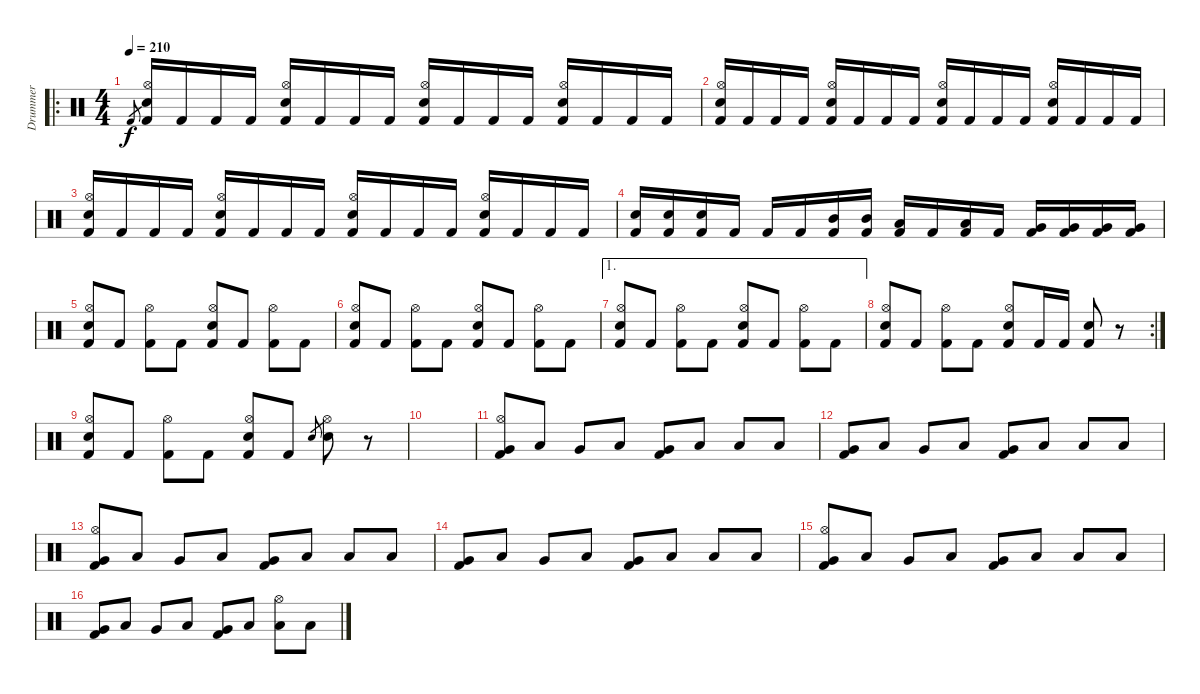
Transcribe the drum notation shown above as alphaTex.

\track ("Drummer" "Drummer") {instrument percussion}
\staff {score}
\articulation defaults
\ro
\ts (4 4)
\tempo 210
\clef neutral
\ks c "Kick (hit) 2".8{gr dy f}
("Hi-Hat (open)" "Electric Snare (hit)" "Kick (hit) 2").16 "Kick (hit) 2".16 "Kick (hit) 2".16 "Kick (hit) 2".16 ("Hi-Hat (open)" "Electric Snare (hit)" "Kick (hit) 2").16 "Kick (hit) 2".16 "Kick (hit) 2".16 "Kick (hit) 2".16 ("Hi-Hat (open)" "Electric Snare (hit)" "Kick (hit) 2").16 "Kick (hit) 2".16 "Kick (hit) 2".16 "Kick (hit) 2".16 ("Hi-Hat (open)" "Electric Snare (hit)" "Kick (hit) 2").16 "Kick (hit) 2".16 "Kick (hit) 2".16 "Kick (hit) 2".16 |
("Hi-Hat (open)" "Electric Snare (hit)" "Kick (hit) 2").16 "Kick (hit) 2".16 "Kick (hit) 2".16 "Kick (hit) 2".16 ("Hi-Hat (open)" "Electric Snare (hit)" "Kick (hit) 2").16 "Kick (hit) 2".16 "Kick (hit) 2".16 "Kick (hit) 2".16 ("Hi-Hat (open)" "Electric Snare (hit)" "Kick (hit) 2").16 "Kick (hit) 2".16 "Kick (hit) 2".16 "Kick (hit) 2".16 ("Hi-Hat (open)" "Electric Snare (hit)" "Kick (hit) 2").16 "Kick (hit) 2".16 "Kick (hit) 2".16 "Kick (hit) 2".16 |
("Hi-Hat (open)" "Electric Snare (hit)" "Kick (hit) 2").16 "Kick (hit) 2".16 "Kick (hit) 2".16 "Kick (hit) 2".16 ("Hi-Hat (open)" "Electric Snare (hit)" "Kick (hit) 2").16 "Kick (hit) 2".16 "Kick (hit) 2".16 "Kick (hit) 2".16 ("Hi-Hat (open)" "Electric Snare (hit)" "Kick (hit) 2").16 "Kick (hit) 2".16 "Kick (hit) 2".16 "Kick (hit) 2".16 ("Hi-Hat (open)" "Electric Snare (hit)" "Kick (hit) 2").16 "Kick (hit) 2".16 "Kick (hit) 2".16 "Kick (hit) 2".16 |
("Electric Snare (hit)" "Kick (hit) 2").16 ("Electric Snare (hit)" "Kick (hit) 2").16 ("Electric Snare (hit)" "Kick (hit) 2").16 "Kick (hit) 2".16 "Kick (hit) 2".16 "Kick (hit) 2".16 ("Mid Tom (hit)" "Kick (hit) 2").16 ("Mid Tom (hit)" "Kick (hit) 2").16 ("Low Tom (hit)" "Kick (hit) 2").16 "Kick (hit) 2".16 ("Low Tom (hit)" "Kick (hit) 2").16 "Kick (hit) 2".16 ("Very Low Tom (hit)" "Kick (hit) 2").16 ("Very Low Tom (hit)" "Kick (hit) 2").16 ("Very Low Tom (hit)" "Kick (hit) 2").16 ("Very Low Tom (hit)" "Kick (hit) 2").16 |
("Hi-Hat (open)" "Electric Snare (hit)" "Kick (hit) 2").8 "Kick (hit) 2".8 ("Hi-Hat (open)" "Kick (hit) 2").8 "Kick (hit) 2".8 ("Hi-Hat (open)" "Electric Snare (hit)" "Kick (hit) 2").8 "Kick (hit) 2".8 ("Hi-Hat (open)" "Kick (hit) 2").8 "Kick (hit) 2".8 |
("Hi-Hat (open)" "Electric Snare (hit)" "Kick (hit) 2").8 "Kick (hit) 2".8 ("Hi-Hat (open)" "Kick (hit) 2").8 "Kick (hit) 2".8 ("Hi-Hat (open)" "Electric Snare (hit)" "Kick (hit) 2").8 "Kick (hit) 2".8 ("Hi-Hat (open)" "Kick (hit) 2").8 "Kick (hit) 2".8 |
\ae 1
("Hi-Hat (open)" "Electric Snare (hit)" "Kick (hit) 2").8 "Kick (hit) 2".8 ("Hi-Hat (open)" "Kick (hit) 2").8 "Kick (hit) 2".8 ("Hi-Hat (open)" "Electric Snare (hit)" "Kick (hit) 2").8 "Kick (hit) 2".8 ("Hi-Hat (open)" "Kick (hit) 2").8 "Kick (hit) 2".8 |
\rc 2
("Hi-Hat (open)" "Electric Snare (hit)" "Kick (hit) 2").8 "Kick (hit) 2".8 ("Hi-Hat (open)" "Kick (hit) 2").8 "Kick (hit) 2".8 ("Hi-Hat (open)" "Electric Snare (hit)" "Kick (hit) 2").8 "Kick (hit) 2".16 "Kick (hit) 2".16 ("Electric Snare (hit)" "Kick (hit) 2").8 r.8 |
("Hi-Hat (open)" "Electric Snare (hit)" "Kick (hit) 2").8 "Kick (hit) 2".8 ("Hi-Hat (open)" "Kick (hit) 2").8 "Kick (hit) 2".8 ("Hi-Hat (open)" "Electric Snare (hit)" "Kick (hit) 2").8 "Kick (hit) 2".8 "Electric Snare (hit)".8{gr} ("Hi-Hat (open)" "Electric Snare (hit)").8 r.8 |
|
("Hi-Hat (open)" "Very Low Tom (hit)" "Kick (hit) 2").8 "Low Tom (hit)".8 "Very Low Tom (hit)".8 "Low Floor Tom (hit)".8 ("Very Low Tom (hit)" "Kick (hit) 2").8 "Low Floor Tom (hit)".8 "Low Tom (hit)".8 "Low Floor Tom (hit)".8 |
("Very Low Tom (hit)" "Kick (hit) 2").8 "Low Tom (hit)".8 "Very Low Tom (hit)".8 "Low Floor Tom (hit)".8 ("Very Low Tom (hit)" "Kick (hit) 2").8 "Low Floor Tom (hit)".8 "Low Tom (hit)".8 "Low Floor Tom (hit)".8 |
("Hi-Hat (open)" "Very Low Tom (hit)" "Kick (hit) 2").8 "Low Tom (hit)".8 "Very Low Tom (hit)".8 "Low Floor Tom (hit)".8 ("Very Low Tom (hit)" "Kick (hit) 2").8 "Low Floor Tom (hit)".8 "Low Tom (hit)".8 "Low Floor Tom (hit)".8 |
("Very Low Tom (hit)" "Kick (hit) 2").8 "Low Tom (hit)".8 "Very Low Tom (hit)".8 "Low Floor Tom (hit)".8 ("Very Low Tom (hit)" "Kick (hit) 2").8 "Low Floor Tom (hit)".8 "Low Tom (hit)".8 "Low Floor Tom (hit)".8 |
("Hi-Hat (open)" "Very Low Tom (hit)" "Kick (hit) 2").8 "Low Tom (hit)".8 "Very Low Tom (hit)".8 "Low Floor Tom (hit)".8 ("Very Low Tom (hit)" "Kick (hit) 2").8 "Low Floor Tom (hit)".8 "Low Tom (hit)".8 "Low Floor Tom (hit)".8 |
("Very Low Tom (hit)" "Kick (hit) 2").8 "Low Tom (hit)".8 "Very Low Tom (hit)".8 "Low Floor Tom (hit)".8 ("Very Low Tom (hit)" "Kick (hit) 2").8 "Low Floor Tom (hit)".8 ("Hi-Hat (open)" "Low Tom (hit)").8 "Low Floor Tom (hit)".8
